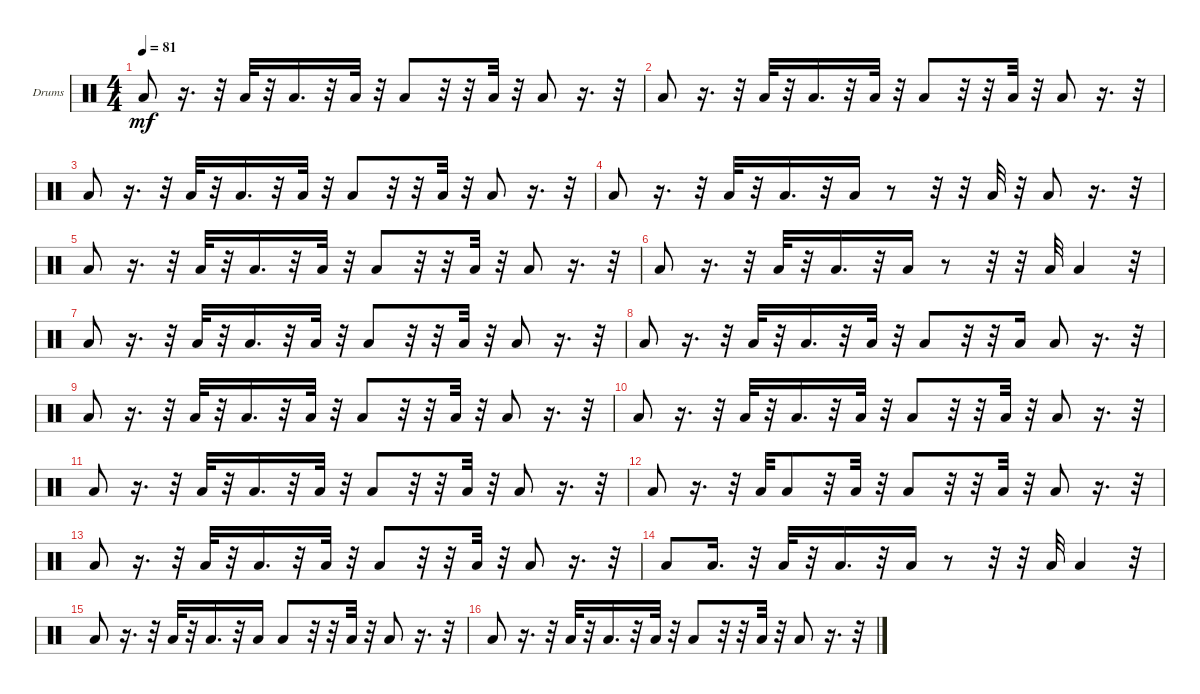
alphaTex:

\bracketExtendMode groupsimilarinstruments
\firstSystemTrackNameOrientation horizontal
\otherSystemsTrackNameOrientation horizontal
\track ("DRUMS" "Drums") {instrument percussion}
\staff {score}
\articulation defaults
\ts (4 4)
\tempo 81
\clef neutral
\ks c "Low Tom (hit)".8{dy mf}
r.16{d} r.32 "Low Tom (hit)".32 r.32 "Low Tom (hit)".16{d} r.32 "Low Tom (hit)".32 r.32 "Low Tom (hit)".8 r.32 r.32 "Low Tom (hit)".32 r.32 "Low Tom (hit)".8 r.16{d} r.32 |
"Low Tom (hit)".8 r.16{d} r.32 "Low Tom (hit)".32 r.32 "Low Tom (hit)".16{d} r.32 "Low Tom (hit)".32 r.32 "Low Tom (hit)".8 r.32 r.32 "Low Tom (hit)".32 r.32 "Low Tom (hit)".8 r.16{d} r.32 |
"Low Tom (hit)".8 r.16{d} r.32 "Low Tom (hit)".32 r.32 "Low Tom (hit)".16{d} r.32 "Low Tom (hit)".32 r.32 "Low Tom (hit)".8 r.32 r.32 "Low Tom (hit)".32 r.32 "Low Tom (hit)".8 r.16{d} r.32 |
"Low Tom (hit)".8 r.16{d} r.32 "Low Tom (hit)".32 r.32 "Low Tom (hit)".16{d} r.32 "Low Tom (hit)".16 r.8 r.32 r.32 "Low Tom (hit)".32 r.32 "Low Tom (hit)".8 r.16{d} r.32 |
"Low Tom (hit)".8 r.16{d} r.32 "Low Tom (hit)".32 r.32 "Low Tom (hit)".16{d} r.32 "Low Tom (hit)".32 r.32 "Low Tom (hit)".8 r.32 r.32 "Low Tom (hit)".32 r.32 "Low Tom (hit)".8 r.16{d} r.32 |
"Low Tom (hit)".8 r.16{d} r.32 "Low Tom (hit)".32 r.32 "Low Tom (hit)".16{d} r.32 "Low Tom (hit)".16 r.8 r.32 r.32 "Low Tom (hit)".32 "Low Tom (hit)".4 r.32 |
"Low Tom (hit)".8 r.16{d} r.32 "Low Tom (hit)".32 r.32 "Low Tom (hit)".16{d} r.32 "Low Tom (hit)".32 r.32 "Low Tom (hit)".8 r.32 r.32 "Low Tom (hit)".32 r.32 "Low Tom (hit)".8 r.16{d} r.32 |
"Low Tom (hit)".8 r.16{d} r.32 "Low Tom (hit)".32 r.32 "Low Tom (hit)".16{d} r.32 "Low Tom (hit)".32 r.32 "Low Tom (hit)".8 r.32 r.32 "Low Tom (hit)".16 "Low Tom (hit)".8 r.16{d} r.32 |
"Low Tom (hit)".8 r.16{d} r.32 "Low Tom (hit)".32 r.32 "Low Tom (hit)".16{d} r.32 "Low Tom (hit)".32 r.32 "Low Tom (hit)".8 r.32 r.32 "Low Tom (hit)".32 r.32 "Low Tom (hit)".8 r.16{d} r.32 |
"Low Tom (hit)".8 r.16{d} r.32 "Low Tom (hit)".32 r.32 "Low Tom (hit)".16{d} r.32 "Low Tom (hit)".32 r.32 "Low Tom (hit)".8 r.32 r.32 "Low Tom (hit)".32 r.32 "Low Tom (hit)".8 r.16{d} r.32 |
"Low Tom (hit)".8 r.16{d} r.32 "Low Tom (hit)".32 r.32 "Low Tom (hit)".16{d} r.32 "Low Tom (hit)".32 r.32 "Low Tom (hit)".8 r.32 r.32 "Low Tom (hit)".32 r.32 "Low Tom (hit)".8 r.16{d} r.32 |
"Low Tom (hit)".8 r.16{d} r.32 "Low Tom (hit)".32 "Low Tom (hit)".8 r.32 "Low Tom (hit)".32 r.32 "Low Tom (hit)".8 r.32 r.32 "Low Tom (hit)".32 r.32 "Low Tom (hit)".8 r.16{d} r.32 |
"Low Tom (hit)".8 r.16{d} r.32 "Low Tom (hit)".32 r.32 "Low Tom (hit)".16{d} r.32 "Low Tom (hit)".32 r.32 "Low Tom (hit)".8 r.32 r.32 "Low Tom (hit)".32 r.32 "Low Tom (hit)".8 r.16{d} r.32 |
"Low Tom (hit)".8 "Low Tom (hit)".16{d} r.32 "Low Tom (hit)".32 r.32 "Low Tom (hit)".16{d} r.32 "Low Tom (hit)".16 r.8 r.32 r.32 "Low Tom (hit)".32 "Low Tom (hit)".4 r.32 |
"Low Tom (hit)".8 r.16{d} r.32 "Low Tom (hit)".32 r.32 "Low Tom (hit)".16{d} r.32 "Low Tom (hit)".16 "Low Tom (hit)".8 r.32 r.32 "Low Tom (hit)".32 r.32 "Low Tom (hit)".8 r.16{d} r.32 |
"Low Tom (hit)".8 r.16{d} r.32 "Low Tom (hit)".32 r.32 "Low Tom (hit)".16{d} r.32 "Low Tom (hit)".32 r.32 "Low Tom (hit)".8 r.32 r.32 "Low Tom (hit)".32 r.32 "Low Tom (hit)".8 r.16{d} r.32
